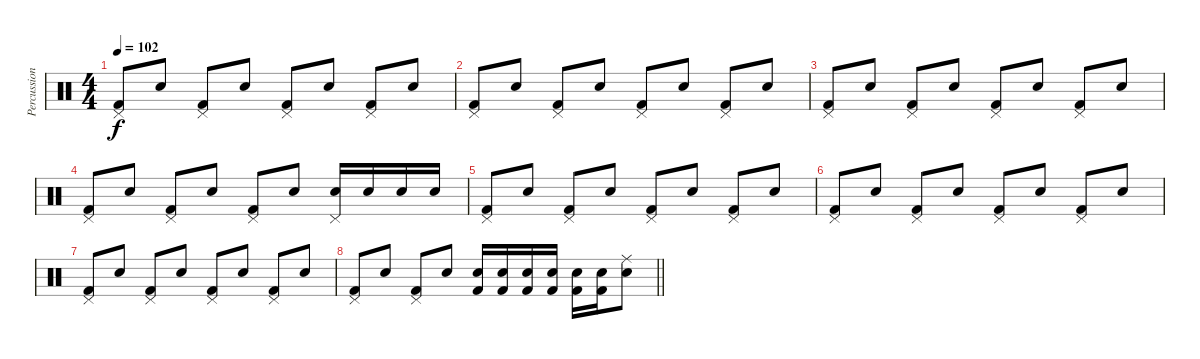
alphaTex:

\track ("Percussioni" "Percussion") {instrument percussion}
\staff {score}
\articulation defaults
\ts (4 4)
\tempo 102
\clef neutral
\ks c
("Pedal Hi-Hat (hit)" "Kick (hit) 2").8{dy f} "Snare (hit) 2".8 ("Pedal Hi-Hat (hit)" "Kick (hit) 2").8 "Snare (hit) 2".8 ("Pedal Hi-Hat (hit)" "Kick (hit) 2").8 "Snare (hit) 2".8 ("Pedal Hi-Hat (hit)" "Kick (hit) 2").8 "Snare (hit) 2".8 |
("Pedal Hi-Hat (hit)" "Kick (hit) 2").8 "Snare (hit) 2".8 ("Pedal Hi-Hat (hit)" "Kick (hit) 2").8 "Snare (hit) 2".8 ("Pedal Hi-Hat (hit)" "Kick (hit) 2").8 "Snare (hit) 2".8 ("Pedal Hi-Hat (hit)" "Kick (hit) 2").8 "Snare (hit) 2".8 |
("Pedal Hi-Hat (hit)" "Kick (hit) 2").8 "Snare (hit) 2".8 ("Pedal Hi-Hat (hit)" "Kick (hit) 2").8 "Snare (hit) 2".8 ("Pedal Hi-Hat (hit)" "Kick (hit) 2").8 "Snare (hit) 2".8 ("Pedal Hi-Hat (hit)" "Kick (hit) 2").8 "Snare (hit) 2".8 |
("Pedal Hi-Hat (hit)" "Kick (hit) 2").8 "Snare (hit) 2".8 ("Pedal Hi-Hat (hit)" "Kick (hit) 2").8 "Snare (hit) 2".8 ("Pedal Hi-Hat (hit)" "Kick (hit) 2").8 "Snare (hit) 2".8 ("Pedal Hi-Hat (hit)" "Snare (hit) 2").16 "Snare (hit) 2".16 "Snare (hit) 2".16 "Snare (hit) 2".16 |
("Pedal Hi-Hat (hit)" "Kick (hit) 2").8 "Snare (hit) 2".8 ("Pedal Hi-Hat (hit)" "Kick (hit) 2").8 "Snare (hit) 2".8 ("Pedal Hi-Hat (hit)" "Kick (hit) 2").8 "Snare (hit) 2".8 ("Pedal Hi-Hat (hit)" "Kick (hit) 2").8 "Snare (hit) 2".8 |
("Pedal Hi-Hat (hit)" "Kick (hit) 2").8 "Snare (hit) 2".8 ("Pedal Hi-Hat (hit)" "Kick (hit) 2").8 "Snare (hit) 2".8 ("Pedal Hi-Hat (hit)" "Kick (hit) 2").8 "Snare (hit) 2".8 ("Pedal Hi-Hat (hit)" "Kick (hit) 2").8 "Snare (hit) 2".8 |
("Pedal Hi-Hat (hit)" "Kick (hit) 2").8 "Snare (hit) 2".8 ("Pedal Hi-Hat (hit)" "Kick (hit) 2").8 "Snare (hit) 2".8 ("Pedal Hi-Hat (hit)" "Kick (hit) 2").8 "Snare (hit) 2".8 ("Pedal Hi-Hat (hit)" "Kick (hit) 2").8 "Snare (hit) 2".8 |
\barLineRight lightlight
("Pedal Hi-Hat (hit)" "Kick (hit) 2").8 "Snare (hit) 2".8 ("Pedal Hi-Hat (hit)" "Kick (hit) 2").8 "Snare (hit) 2".8 ("Kick (hit) 2" "Snare (hit) 2").16 ("Kick (hit) 2" "Snare (hit) 2").16 ("Kick (hit) 2" "Snare (hit) 2").16 ("Kick (hit) 2" "Snare (hit) 2").16 ("Kick (hit) 2" "Snare (hit) 2").16 ("Kick (hit) 2" "Snare (hit) 2").16 ("Ride (middle)" "Snare (hit) 2").8
